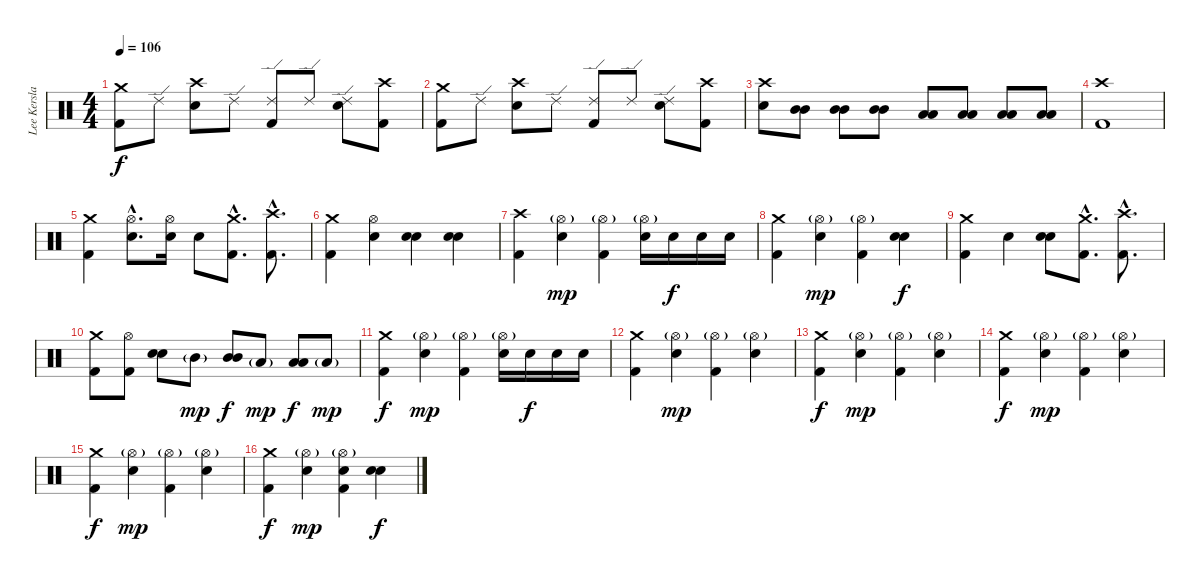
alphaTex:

\track ("Lee Kerslake" "Lee Kersla") {instrument percussion}
\staff {score}
\articulation defaults
\ts (4 4)
\tempo 106
\clef neutral
\ks c
("Crash medium (hit)" "Kick (hit) 2").8{dy f} "Ride (edge) 2".8 ("Crash high (hit)" "Snare (hit) 2").8 "Ride (edge) 2".8 ("Ride (edge) 2" "Kick (hit) 2").8 "Ride (edge) 2".8 ("Ride (edge) 2" "Snare (hit) 2").8 ("Crash high (hit)" "Kick (hit) 2").8 |
("Crash medium (hit)" "Kick (hit) 2").8 "Ride (edge) 2".8 ("Crash high (hit)" "Snare (hit) 2").8 "Ride (edge) 2".8 ("Ride (edge) 2" "Kick (hit) 2").8 "Ride (edge) 2".8 ("Ride (edge) 2" "Snare (hit) 2").8 ("Crash high (hit)" "Kick (hit) 2").8 |
("Crash high (hit)" "Snare (hit) 2").8 ("Mid Tom (hit)" "Mid Tom (hit)").8{bd 240} ("Mid Tom (hit)" "Mid Tom (hit)").8{bd 240} ("Mid Tom (hit)" "Mid Tom (hit)").8{bd 240} ("Low Tom (hit)" "Low Tom (hit)").8{bd 240} ("Low Tom (hit)" "Low Tom (hit)").8{bd 240} ("Low Tom (hit)" "Low Tom (hit)").8{bd 240} ("Low Tom (hit)" "Low Tom (hit)").8{bd 240} |
("Crash high (hit)" "Kick (hit) 2").1 |
("Crash medium (hit)" "Kick (hit) 2").4 ("Hi-Hat (open)"{hac} "Snare (hit) 2"{hac}).8{d} ("Hi-Hat (open)" "Snare (hit) 2").16 "Snare (hit) 2".8 ("Crash medium (hit)"{hac} "Kick (hit) 2"{hac}).8{d} ("Crash high (hit)"{hac} "Kick (hit) 2"{hac}).8{d} |
("Crash medium (hit)" "Kick (hit) 2").4 ("Hi-Hat (open)" "Snare (hit) 2").4 ("Snare (hit) 2" "Snare (hit) 2").4{bd 240} ("Snare (hit) 2" "Snare (hit) 2").4{bd 240} |
("Crash high (hit)" "Kick (hit) 2").4 ("Hi-Hat (open)"{g} "Snare (hit) 2").4{dy mp} ("Hi-Hat (open)"{g} "Kick (hit) 2").4 ("Hi-Hat (open)"{g} "Snare (hit) 2").16 "Snare (hit) 2".16{dy f} "Snare (hit) 2".16 "Snare (hit) 2".16 |
("Crash medium (hit)" "Kick (hit) 2").4 ("Hi-Hat (open)"{g} "Snare (hit) 2").4{dy mp} ("Hi-Hat (open)"{g} "Kick (hit) 2").4 ("Snare (hit) 2" "Snare (hit) 2").4{bd 240 dy f} |
("Crash medium (hit)" "Kick (hit) 2").4 "Snare (hit) 2".4 ("Snare (hit) 2" "Snare (hit) 2").8{bd 240} ("Crash medium (hit)"{hac} "Kick (hit) 2"{hac}).8{d} ("Crash high (hit)"{hac} "Kick (hit) 2"{hac}).8{d} |
("Crash medium (hit)" "Kick (hit) 2").8 ("Hi-Hat (open)" "Kick (hit) 2").8 ("Snare (hit) 2" "Snare (hit) 2").8{bd 240} "Mid Tom (hit)"{g}.8{dy mp} ("Mid Tom (hit)" "Mid Tom (hit)").8{bd 240 dy f} "Low Tom (hit)"{g}.8{dy mp} ("Low Tom (hit)" "Low Tom (hit)").8{bd 240 dy f} "Low Tom (hit)"{g}.8{dy mp} |
("Crash medium (hit)" "Kick (hit) 2").4{dy f} ("Hi-Hat (open)"{g} "Snare (hit) 2").4{dy mp} ("Hi-Hat (open)"{g} "Kick (hit) 2").4 ("Hi-Hat (open)"{g} "Snare (hit) 2").16 "Snare (hit) 2".16{dy f} "Snare (hit) 2".16 "Snare (hit) 2".16 |
("Crash medium (hit)" "Kick (hit) 2").4 ("Hi-Hat (open)"{g} "Snare (hit) 2").4{dy mp} ("Hi-Hat (open)"{g} "Kick (hit) 2").4 ("Hi-Hat (open)"{g} "Snare (hit) 2").4 |
("Crash medium (hit)" "Kick (hit) 2").4{dy f} ("Hi-Hat (open)"{g} "Snare (hit) 2").4{dy mp} ("Hi-Hat (open)"{g} "Kick (hit) 2").4 ("Hi-Hat (open)"{g} "Snare (hit) 2").4 |
("Crash medium (hit)" "Kick (hit) 2").4{dy f} ("Hi-Hat (open)"{g} "Snare (hit) 2").4{dy mp} ("Hi-Hat (open)"{g} "Kick (hit) 2").4 ("Hi-Hat (open)"{g} "Snare (hit) 2").4 |
("Crash medium (hit)" "Kick (hit) 2").4{dy f} ("Hi-Hat (open)"{g} "Snare (hit) 2").4{dy mp} ("Hi-Hat (open)"{g} "Kick (hit) 2").4 ("Hi-Hat (open)"{g} "Snare (hit) 2").4 |
("Crash medium (hit)" "Kick (hit) 2").4{dy f} ("Hi-Hat (open)"{g} "Snare (hit) 2").4{dy mp} ("Hi-Hat (open)"{g} "Snare (hit) 2" "Kick (hit) 2").4 ("Snare (hit) 2" "Snare (hit) 2").4{bd 240 dy f}
